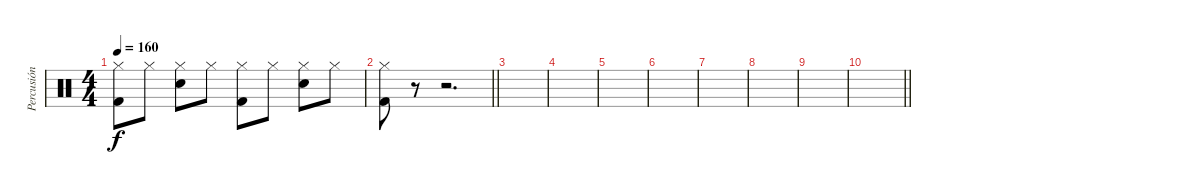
\track ("Percusión" "Percusión") {instrument percussion}
\staff {score}
\articulation defaults
\ts (4 4)
\tempo 160
\clef neutral
\ks c
("Hi-Hat (closed)" "Kick (hit) 2").8{dy f} "Hi-Hat (closed)".8 ("Hi-Hat (closed)" "Snare (hit) 2").8 "Hi-Hat (closed)".8 ("Hi-Hat (closed)" "Kick (hit) 2").8 "Hi-Hat (closed)".8 ("Hi-Hat (closed)" "Snare (hit) 2").8 "Hi-Hat (closed)".8 |
\barLineRight lightlight
("Hi-Hat (closed)" "Kick (hit) 2").8 r.8 r.2{d} |
|
|
|
|
|
|
|
\barLineRight lightlight
